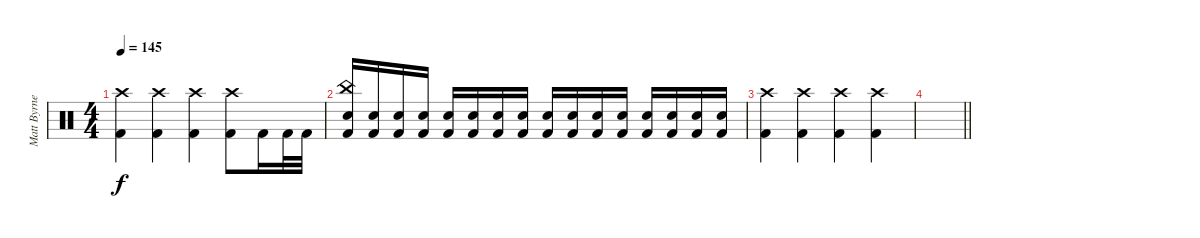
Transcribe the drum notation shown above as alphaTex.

\track ("Matt Byrne, Drums" "Matt Byrne") {instrument percussion}
\staff {score}
\articulation defaults
\ts (4 4)
\tempo 145
\clef neutral
\ks c
("Crash high (hit)" "Kick (hit) 2").4{dy f} ("Crash high (hit)" "Kick (hit) 2").4 ("Crash high (hit)" "Kick (hit) 2").4 ("Crash high (hit)" "Kick (hit) 2").8 "Kick (hit) 2".16 "Kick (hit) 2".32 "Kick (hit) 2".32 |
("China (hit)" "Electric Snare (hit)" "Kick (hit) 2").16 ("Electric Snare (hit)" "Kick (hit) 2").16 ("Electric Snare (hit)" "Kick (hit) 2").16 ("Electric Snare (hit)" "Kick (hit) 2").16 ("Electric Snare (hit)" "Kick (hit) 2").16 ("Electric Snare (hit)" "Kick (hit) 2").16 ("Electric Snare (hit)" "Kick (hit) 2").16 ("Electric Snare (hit)" "Kick (hit) 2").16 ("Electric Snare (hit)" "Kick (hit) 2").16 ("Electric Snare (hit)" "Kick (hit) 2").16 ("Electric Snare (hit)" "Kick (hit) 2").16 ("Electric Snare (hit)" "Kick (hit) 2").16 ("Electric Snare (hit)" "Kick (hit) 2").16 ("Electric Snare (hit)" "Kick (hit) 2").16 ("Electric Snare (hit)" "Kick (hit) 2").16 ("Electric Snare (hit)" "Kick (hit) 2").16 |
("Crash high (hit)" "Kick (hit) 2").4 ("Crash high (hit)" "Kick (hit) 2").4 ("Crash high (hit)" "Kick (hit) 2").4 ("Crash high (hit)" "Kick (hit) 2").4 |
\barLineRight lightlight
